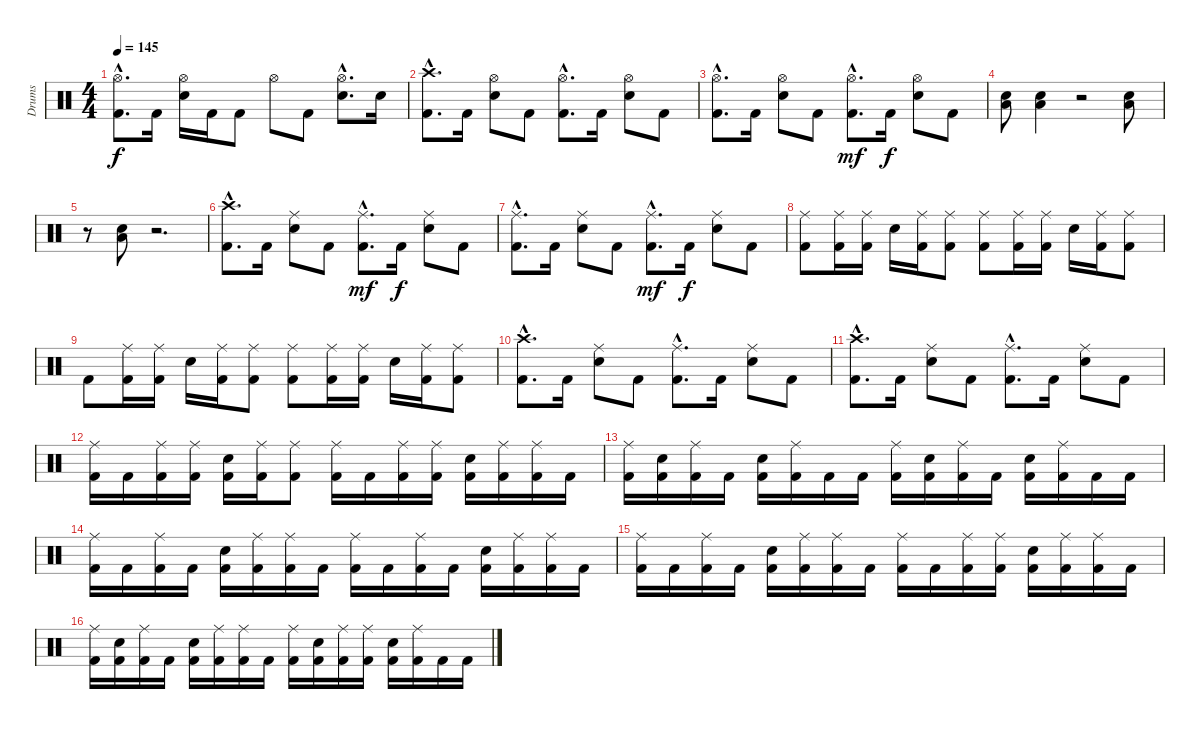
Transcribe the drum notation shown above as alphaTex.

\track ("Drums" "Drums") {instrument percussion}
\staff {score}
\articulation defaults
\ts (4 4)
\tempo 145
\clef neutral
\ks c
("Hi-Hat (open)"{hac} "Kick (hit) 2"{hac}).8{d dy f} "Kick (hit) 2".16 ("Hi-Hat (open)" "Electric Snare (hit)").16 "Kick (hit) 2".16 "Kick (hit) 2".8 "Hi-Hat (open)".8 "Kick (hit) 2".8 ("Hi-Hat (open)"{hac} "Electric Snare (hit)"{hac}).8{d} "Electric Snare (hit)".16 |
("Crash high (hit)"{hac} "Kick (hit) 2"{hac}).8{d} "Kick (hit) 2".16 ("Hi-Hat (open)" "Electric Snare (hit)").8 "Kick (hit) 2".8 ("Hi-Hat (open)"{hac} "Kick (hit) 2"{hac}).8{d} "Kick (hit) 2".16 ("Hi-Hat (open)" "Electric Snare (hit)").8 "Kick (hit) 2".8 |
("Hi-Hat (open)"{hac} "Kick (hit) 2"{hac}).8{d} "Kick (hit) 2".16 ("Hi-Hat (open)" "Electric Snare (hit)").8 "Kick (hit) 2".8 ("Hi-Hat (open)"{hac} "Kick (hit) 2"{hac}).8{d dy mf} "Kick (hit) 2".16{dy f} ("Hi-Hat (open)" "Electric Snare (hit)").8 "Kick (hit) 2".8 |
("Electric Snare (hit)" "Low Floor Tom (hit)").8 ("Electric Snare (hit)" "Low Floor Tom (hit)").4 r.2 ("Low Floor Tom (hit)" "Electric Snare (hit)").8 |
r.8 ("Electric Snare (hit)" "Low Floor Tom (hit)").8 r.2{d} |
("Crash high (hit)"{hac} "Kick (hit) 2"{hac}).8{d} "Kick (hit) 2".16 ("Ride (middle)" "Electric Snare (hit)").8 "Kick (hit) 2".8 ("Ride (middle)"{hac} "Kick (hit) 2"{hac}).8{d dy mf} "Kick (hit) 2".16{dy f} ("Ride (middle)" "Electric Snare (hit)").8 "Kick (hit) 2".8 |
("Ride (middle)"{hac} "Kick (hit) 2"{hac}).8{d} "Kick (hit) 2".16 ("Ride (middle)" "Electric Snare (hit)").8 "Kick (hit) 2".8 ("Ride (middle)"{hac} "Kick (hit) 2"{hac}).8{d dy mf} "Kick (hit) 2".16{dy f} ("Ride (middle)" "Electric Snare (hit)").8 "Kick (hit) 2".8 |
("Ride (middle)" "Kick (hit) 2").8 ("Ride (middle)" "Kick (hit) 2").16 ("Ride (middle)" "Kick (hit) 2").16 "Electric Snare (hit)".16 ("Ride (middle)" "Kick (hit) 2").16 ("Ride (middle)" "Kick (hit) 2").8 ("Ride (middle)" "Kick (hit) 2").8 ("Ride (middle)" "Kick (hit) 2").16 ("Ride (middle)" "Kick (hit) 2").16 "Electric Snare (hit)".16 ("Ride (middle)" "Kick (hit) 2").16 ("Ride (middle)" "Kick (hit) 2").8 |
"Kick (hit) 2".8 ("Ride (middle)" "Kick (hit) 2").16 ("Ride (middle)" "Kick (hit) 2").16 "Electric Snare (hit)".16 ("Ride (middle)" "Kick (hit) 2").16 ("Ride (middle)" "Kick (hit) 2").8 ("Ride (middle)" "Kick (hit) 2").8 ("Ride (middle)" "Kick (hit) 2").16 ("Ride (middle)" "Kick (hit) 2").16 "Electric Snare (hit)".16 ("Ride (middle)" "Kick (hit) 2").16 ("Ride (middle)" "Kick (hit) 2").8 |
("Crash high (hit)"{hac} "Kick (hit) 2"{hac}).8{d} "Kick (hit) 2".16 ("Ride (middle)" "Electric Snare (hit)").8 "Kick (hit) 2".8 ("Ride (middle)"{hac} "Kick (hit) 2"{hac}).8{d} "Kick (hit) 2".16 ("Ride (middle)" "Electric Snare (hit)").8 "Kick (hit) 2".8 |
("Crash high (hit)"{hac} "Kick (hit) 2"{hac}).8{d} "Kick (hit) 2".16 ("Ride (middle)" "Electric Snare (hit)").8 "Kick (hit) 2".8 ("Ride (middle)"{hac} "Kick (hit) 2"{hac}).8{d} "Kick (hit) 2".16 ("Ride (middle)" "Electric Snare (hit)").8 "Kick (hit) 2".8 |
("Ride (middle)" "Kick (hit) 2").16 "Kick (hit) 2".16 ("Ride (middle)" "Kick (hit) 2").16 ("Ride (middle)" "Kick (hit) 2").16 ("Electric Snare (hit)" "Kick (hit) 2").16 ("Ride (middle)" "Kick (hit) 2").16 ("Ride (middle)" "Kick (hit) 2").8 ("Ride (middle)" "Kick (hit) 2").16 "Kick (hit) 2".16 ("Ride (middle)" "Kick (hit) 2").16 ("Ride (middle)" "Kick (hit) 2").16 ("Electric Snare (hit)" "Kick (hit) 2").16 ("Ride (middle)" "Kick (hit) 2").16 ("Ride (middle)" "Kick (hit) 2").16 "Kick (hit) 2".16 |
("Ride (middle)" "Kick (hit) 2").16 ("Electric Snare (hit)" "Kick (hit) 2").16 ("Ride (middle)" "Kick (hit) 2").16 "Kick (hit) 2".16 ("Electric Snare (hit)" "Kick (hit) 2").16 ("Ride (middle)" "Kick (hit) 2").16 "Kick (hit) 2".16 "Kick (hit) 2".16 ("Ride (middle)" "Kick (hit) 2").16 ("Electric Snare (hit)" "Kick (hit) 2").16 ("Ride (middle)" "Kick (hit) 2").16 "Kick (hit) 2".16 ("Electric Snare (hit)" "Kick (hit) 2").16 ("Ride (middle)" "Kick (hit) 2").16 "Kick (hit) 2".16 "Kick (hit) 2".16 |
("Ride (middle)" "Kick (hit) 2").16 "Kick (hit) 2".16 ("Ride (middle)" "Kick (hit) 2").16 "Kick (hit) 2".16 ("Electric Snare (hit)" "Kick (hit) 2").16 ("Ride (middle)" "Kick (hit) 2").16 ("Ride (middle)" "Kick (hit) 2").16 "Kick (hit) 2".16 ("Ride (middle)" "Kick (hit) 2").16 "Kick (hit) 2".16 ("Ride (middle)" "Kick (hit) 2").16 "Kick (hit) 2".16 ("Electric Snare (hit)" "Kick (hit) 2").16 ("Ride (middle)" "Kick (hit) 2").16 ("Ride (middle)" "Kick (hit) 2").16 "Kick (hit) 2".16 |
("Ride (middle)" "Kick (hit) 2").16 "Kick (hit) 2".16 ("Ride (middle)" "Kick (hit) 2").16 "Kick (hit) 2".16 ("Electric Snare (hit)" "Kick (hit) 2").16 ("Ride (middle)" "Kick (hit) 2").16 ("Ride (middle)" "Kick (hit) 2").16 "Kick (hit) 2".16 ("Ride (middle)" "Kick (hit) 2").16 "Kick (hit) 2".16 ("Ride (middle)" "Kick (hit) 2").16 ("Ride (middle)" "Kick (hit) 2").16 ("Electric Snare (hit)" "Kick (hit) 2").16 ("Ride (middle)" "Kick (hit) 2").16 ("Ride (middle)" "Kick (hit) 2").16 "Kick (hit) 2".16 |
("Ride (middle)" "Kick (hit) 2").16 ("Electric Snare (hit)" "Kick (hit) 2").16 ("Ride (middle)" "Kick (hit) 2").16 "Kick (hit) 2".16 ("Electric Snare (hit)" "Kick (hit) 2").16 ("Ride (middle)" "Kick (hit) 2").16 ("Ride (middle)" "Kick (hit) 2").16 "Kick (hit) 2".16 ("Ride (middle)" "Kick (hit) 2").16 ("Electric Snare (hit)" "Kick (hit) 2").16 ("Ride (middle)" "Kick (hit) 2").16 ("Ride (middle)" "Kick (hit) 2").16 ("Electric Snare (hit)" "Kick (hit) 2").16 ("Ride (middle)" "Kick (hit) 2").16 "Kick (hit) 2".16 "Kick (hit) 2".16
